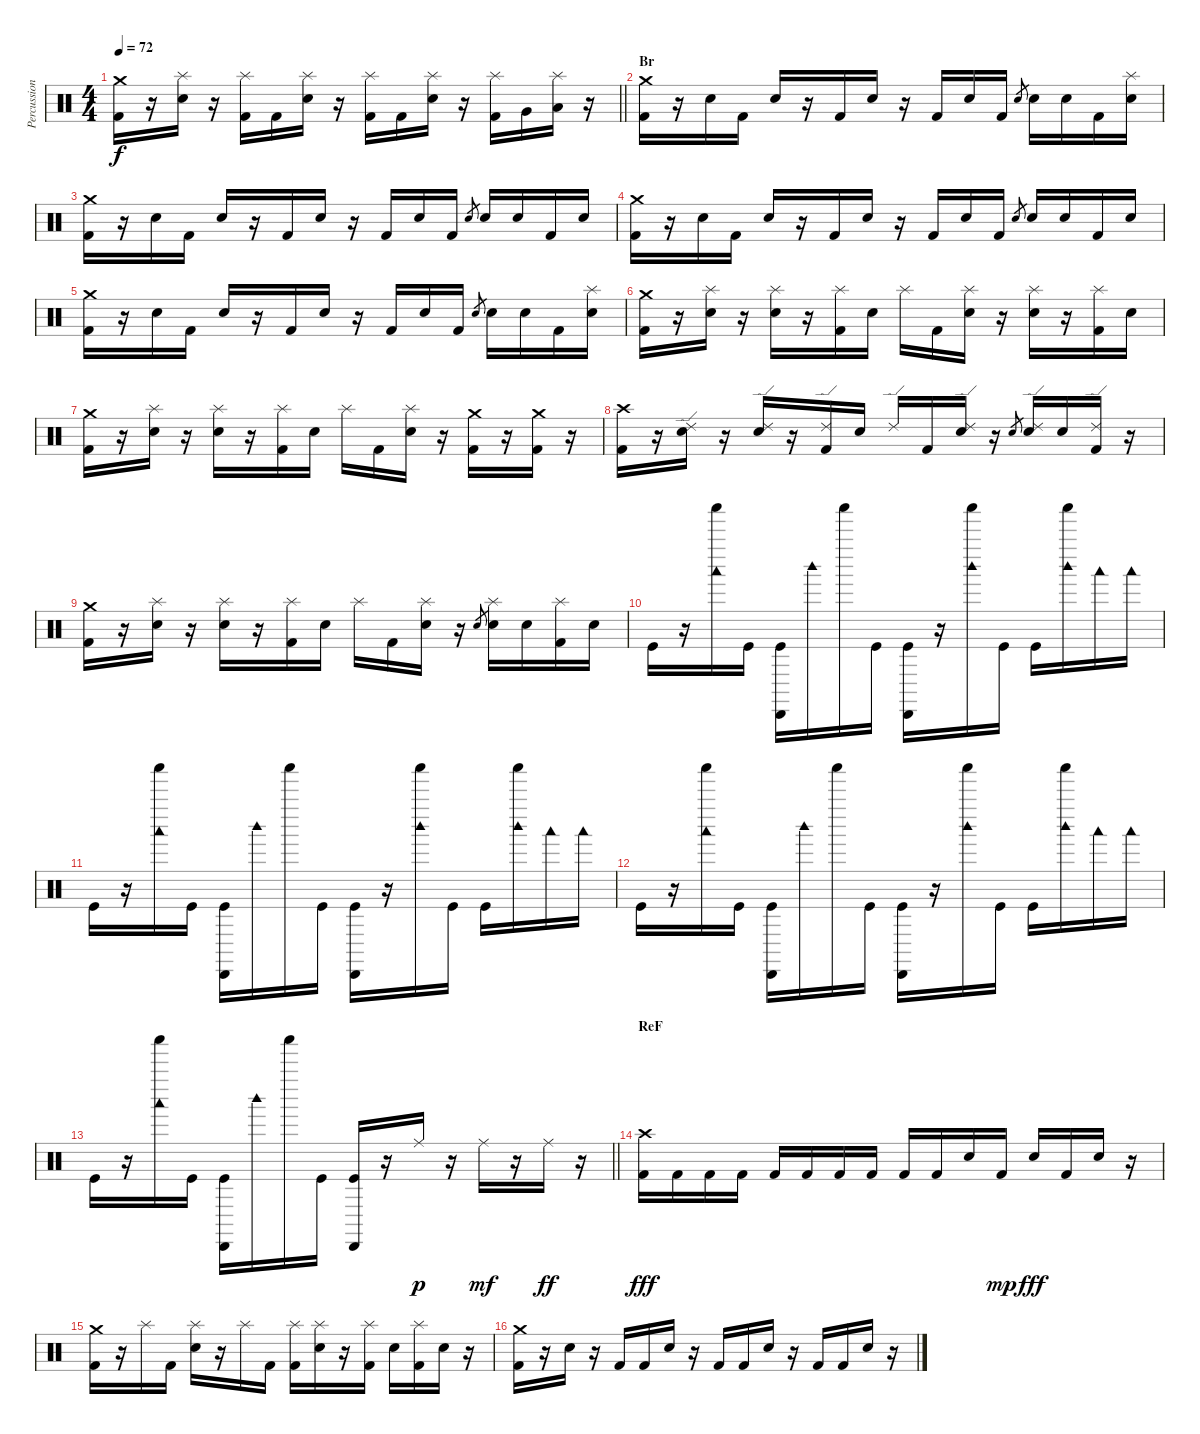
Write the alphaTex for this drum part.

\track ("Percussion" "Percussion") {instrument percussion}
\staff {score}
\articulation defaults
\ts (4 4)
\tempo 72
\clef neutral
\barLineRight lightlight
\ks c
("Crash medium (hit)" "Kick (hit) 2").16{dy f} r.16 ("Splash (hit)" "Snare (hit) 2").16 r.16 ("Splash (hit)" "Kick (hit) 2").16 "Kick (hit) 2".16 ("Splash (hit)" "Snare (hit) 2").16 r.16 ("Splash (hit)" "Kick (hit) 2").16 "Kick (hit) 2".16 ("Splash (hit)" "Snare (hit) 2").16 r.16 ("Splash (hit)" "Kick (hit) 2").16 "Very Low Tom (hit)".16 ("Splash (hit)" "Low Floor Tom (hit)").16 r.16 |
\section ("" "Br")
("Crash medium (hit)" "Kick (hit) 2").16 r.16 "Snare (hit) 2".16 "Kick (hit) 2".16 "Snare (hit) 2".16 r.16 "Kick (hit) 2".16 "Snare (hit) 2".16 r.16 "Kick (hit) 2".16 "Snare (hit) 2".16 "Kick (hit) 2".16 "Snare (hit) 2".8{gr} "Snare (hit) 2".16 "Snare (hit) 2".16 "Kick (hit) 2".16 ("Splash (hit)" "Snare (hit) 2").16 |
("Crash medium (hit)" "Kick (hit) 2").16 r.16 "Electric Snare (hit)".16 "Kick (hit) 2".16 "Electric Snare (hit)".16 r.16 "Kick (hit) 2".16 "Electric Snare (hit)".16 r.16 "Kick (hit) 2".16 "Electric Snare (hit)".16 "Kick (hit) 2".16 "Electric Snare (hit)".8{gr} "Electric Snare (hit)".16 "Electric Snare (hit)".16 "Kick (hit) 2".16 "Electric Snare (hit)".16 |
("Crash medium (hit)" "Kick (hit) 2").16 r.16 "Electric Snare (hit)".16 "Kick (hit) 2".16 "Electric Snare (hit)".16 r.16 "Kick (hit) 2".16 "Electric Snare (hit)".16 r.16 "Kick (hit) 2".16 "Electric Snare (hit)".16 "Kick (hit) 2".16 "Electric Snare (hit)".8{gr} "Electric Snare (hit)".16 "Electric Snare (hit)".16 "Kick (hit) 2".16 "Electric Snare (hit)".16 |
("Crash medium (hit)" "Kick (hit) 2").16 r.16 "Electric Snare (hit)".16 "Kick (hit) 2".16 "Electric Snare (hit)".16 r.16 "Kick (hit) 2".16 "Electric Snare (hit)".16 r.16 "Kick (hit) 2".16 "Electric Snare (hit)".16 "Kick (hit) 2".16 "Electric Snare (hit)".8{gr} "Electric Snare (hit)".16 "Electric Snare (hit)".16 "Kick (hit) 2".16 ("Splash (hit)" "Electric Snare (hit)").16 |
("Crash medium (hit)" "Kick (hit) 2").16 r.16 ("Splash (hit)" "Electric Snare (hit)").16 r.16 ("Splash (hit)" "Electric Snare (hit)").16 r.16 ("Splash (hit)" "Kick (hit) 2").16 "Electric Snare (hit)".16 "Splash (hit)".16 "Kick (hit) 2".16 ("Splash (hit)" "Electric Snare (hit)").16 r.16 ("Splash (hit)" "Electric Snare (hit)").16 r.16 ("Splash (hit)" "Kick (hit) 2").16 "Electric Snare (hit)".16 |
("Crash medium (hit)" "Kick (hit) 2").16 r.16 ("Splash (hit)" "Electric Snare (hit)").16 r.16 ("Splash (hit)" "Electric Snare (hit)").16 r.16 ("Splash (hit)" "Kick (hit) 2").16 "Electric Snare (hit)".16 "Splash (hit)".16 "Kick (hit) 2".16 ("Splash (hit)" "Electric Snare (hit)").16 r.16 ("Crash medium (hit)" "Kick (hit) 2").16 r.16 ("Crash medium (hit)" "Kick (hit) 2").16 r.16 |
("Crash high (hit)" "Kick (hit) 2").16 r.16 ("Ride (edge) 2" "Electric Snare (hit)").16 r.16 ("Ride (edge) 2" "Electric Snare (hit)").16 r.16 ("Ride (edge) 2" "Kick (hit) 2").16 "Electric Snare (hit)".16 "Ride (edge) 2".16 "Kick (hit) 2".16 ("Ride (edge) 2" "Electric Snare (hit)").16 r.16 "Electric Snare (hit)".8{gr} ("Ride (edge) 2" "Electric Snare (hit)").16 "Electric Snare (hit)".16 ("Ride (edge) 2" "Kick (hit) 2").16 r.16 |
("Crash medium (hit)" "Kick (hit) 2").16 r.16 ("Splash (hit)" "Electric Snare (hit)").16 r.16 ("Splash (hit)" "Electric Snare (hit)").16 r.16 ("Splash (hit)" "Kick (hit) 2").16 "Electric Snare (hit)".16 "Splash (hit)".16 "Kick (hit) 2".16 ("Splash (hit)" "Electric Snare (hit)").16 r.16 "Electric Snare (hit)".8{gr} ("Splash (hit)" "Electric Snare (hit)").16 "Electric Snare (hit)".16 ("Splash (hit)" "Kick (hit) 2").16 "Electric Snare (hit)".16 |
"Kick (hit)".16 r.16 ("Shaker (hit)" "Woodblock low (hit)").16 "Kick (hit)".16 ("Cabasa (hit)" "Kick (hit)").16 "Woodblock high (hit)".16 "Shaker (hit)".16 "Kick (hit)".16 ("Cabasa (hit)" "Kick (hit)").16 r.16 ("Shaker (hit)" "Woodblock high (hit)").16 "Kick (hit)".16 "Kick (hit)".16 ("Shaker (hit)" "Woodblock high (hit)").16 "Woodblock low (hit)".16 "Woodblock low (hit)".16 |
"Kick (hit)".16 r.16 ("Shaker (hit)" "Woodblock low (hit)").16 "Kick (hit)".16 ("Cabasa (hit)" "Kick (hit)").16 "Woodblock high (hit)".16 "Shaker (hit)".16 "Kick (hit)".16 ("Cabasa (hit)" "Kick (hit)").16 r.16 ("Shaker (hit)" "Woodblock high (hit)").16 "Kick (hit)".16 "Kick (hit)".16 ("Shaker (hit)" "Woodblock high (hit)").16 "Woodblock low (hit)".16 "Woodblock low (hit)".16 |
"Kick (hit)".16 r.16 ("Shaker (hit)" "Woodblock low (hit)").16 "Kick (hit)".16 ("Cabasa (hit)" "Kick (hit)").16 "Woodblock high (hit)".16 "Shaker (hit)".16 "Kick (hit)".16 ("Cabasa (hit)" "Kick (hit)").16 r.16 ("Shaker (hit)" "Woodblock high (hit)").16 "Kick (hit)".16 "Kick (hit)".16 ("Shaker (hit)" "Woodblock high (hit)").16 "Woodblock low (hit)".16 "Woodblock low (hit)".16 |
\barLineRight lightlight "Kick (hit)".16
r.16 ("Shaker (hit)" "Woodblock low (hit)").16 "Kick (hit)".16 ("Cabasa (hit)" "Kick (hit)").16 "Woodblock high (hit)".16 "Shaker (hit)".16 "Kick (hit)".16 ("Cabasa (hit)" "Kick (hit)").16 r.16 "Ride (middle)".16{dy p} r.16 "Ride (middle)".16{dy mf} r.16 "Ride (middle)".16{dy ff} r.16 |
\section ("" "ReF")
("Crash high (hit)" "Kick (hit) 2").16{dy fff} "Kick (hit) 2".16 "Kick (hit) 2".16 "Kick (hit) 2".16 "Kick (hit) 2".16 "Kick (hit) 2".16 "Kick (hit) 2".16 "Kick (hit) 2".16 "Kick (hit) 2".16 "Kick (hit) 2".16 "Snare (hit) 2".16 "Kick (hit) 2".16{dy mp} "Snare (hit) 2".16{dy fff} "Kick (hit) 2".16 "Snare (hit) 2".16 r.16 |
("Crash medium (hit)" "Kick (hit) 2").16 r.16 "Splash (hit)".16 "Kick (hit) 2".16 ("Splash (hit)" "Snare (hit) 2").16 r.16 "Splash (hit)".16 "Kick (hit) 2".16 ("Splash (hit)" "Kick (hit) 2").16 ("Splash (hit)" "Snare (hit) 2").16 r.16 ("Splash (hit)" "Kick (hit) 2").16 "Snare (hit) 2".16 ("Splash (hit)" "Kick (hit) 2").16 "Snare (hit) 2".16 r.16 |
("Crash medium (hit)" "Kick (hit) 2").16 r.16 "Electric Snare (hit)".16 r.16 "Kick (hit) 2".16 "Kick (hit) 2".16 "Electric Snare (hit)".16 r.16 "Kick (hit) 2".16 "Kick (hit) 2".16 "Electric Snare (hit)".16 r.16 "Kick (hit) 2".16 "Kick (hit) 2".16 "Electric Snare (hit)".16 r.16
